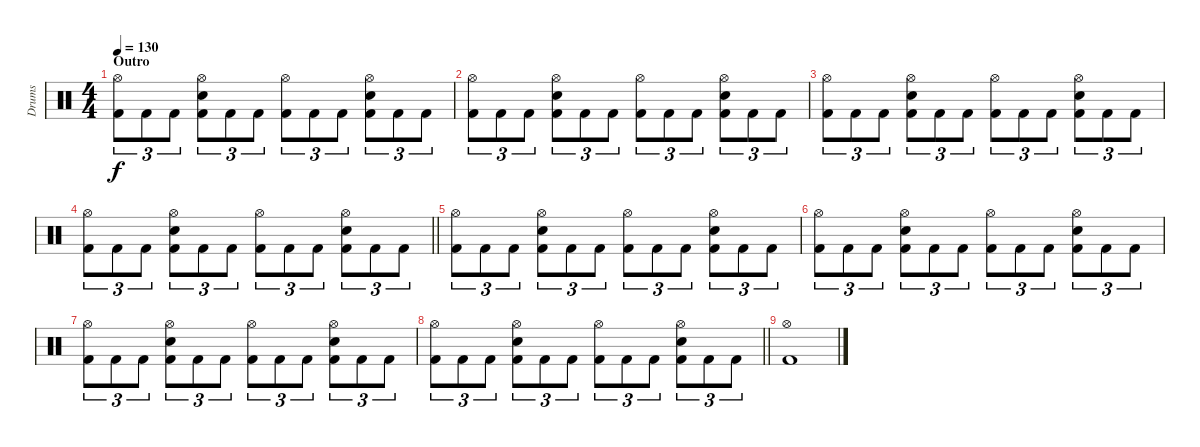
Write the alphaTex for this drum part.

\track ("Drums" "Drums") {instrument percussion}
\staff {score}
\articulation defaults
\ts (4 4)
\section ("" "Outro")
\tempo 130
\clef neutral
\ks c
("Hi-Hat (open)" "Kick (hit) 2").8{tu (3 2) dy f} "Kick (hit) 2".8{tu (3 2)} "Kick (hit) 2".8{tu (3 2)} ("Hi-Hat (open)" "Snare (hit) 2" "Kick (hit) 2").8{tu (3 2)} "Kick (hit) 2".8{tu (3 2)} "Kick (hit) 2".8{tu (3 2)} ("Hi-Hat (open)" "Kick (hit) 2").8{tu (3 2)} "Kick (hit) 2".8{tu (3 2)} "Kick (hit) 2".8{tu (3 2)} ("Hi-Hat (open)" "Snare (hit) 2" "Kick (hit) 2").8{tu (3 2)} "Kick (hit) 2".8{tu (3 2)} "Kick (hit) 2".8{tu (3 2)} |
("Hi-Hat (open)" "Kick (hit) 2").8{tu (3 2)} "Kick (hit) 2".8{tu (3 2)} "Kick (hit) 2".8{tu (3 2)} ("Hi-Hat (open)" "Snare (hit) 2" "Kick (hit) 2").8{tu (3 2)} "Kick (hit) 2".8{tu (3 2)} "Kick (hit) 2".8{tu (3 2)} ("Hi-Hat (open)" "Kick (hit) 2").8{tu (3 2)} "Kick (hit) 2".8{tu (3 2)} "Kick (hit) 2".8{tu (3 2)} ("Hi-Hat (open)" "Snare (hit) 2" "Kick (hit) 2").8{tu (3 2)} "Kick (hit) 2".8{tu (3 2)} "Kick (hit) 2".8{tu (3 2)} |
("Hi-Hat (open)" "Kick (hit) 2").8{tu (3 2)} "Kick (hit) 2".8{tu (3 2)} "Kick (hit) 2".8{tu (3 2)} ("Hi-Hat (open)" "Snare (hit) 2" "Kick (hit) 2").8{tu (3 2)} "Kick (hit) 2".8{tu (3 2)} "Kick (hit) 2".8{tu (3 2)} ("Hi-Hat (open)" "Kick (hit) 2").8{tu (3 2)} "Kick (hit) 2".8{tu (3 2)} "Kick (hit) 2".8{tu (3 2)} ("Hi-Hat (open)" "Snare (hit) 2" "Kick (hit) 2").8{tu (3 2)} "Kick (hit) 2".8{tu (3 2)} "Kick (hit) 2".8{tu (3 2)} |
\barLineRight lightlight
("Hi-Hat (open)" "Kick (hit) 2").8{tu (3 2)} "Kick (hit) 2".8{tu (3 2)} "Kick (hit) 2".8{tu (3 2)} ("Hi-Hat (open)" "Snare (hit) 2" "Kick (hit) 2").8{tu (3 2)} "Kick (hit) 2".8{tu (3 2)} "Kick (hit) 2".8{tu (3 2)} ("Hi-Hat (open)" "Kick (hit) 2").8{tu (3 2)} "Kick (hit) 2".8{tu (3 2)} "Kick (hit) 2".8{tu (3 2)} ("Hi-Hat (open)" "Snare (hit) 2" "Kick (hit) 2").8{tu (3 2)} "Kick (hit) 2".8{tu (3 2)} "Kick (hit) 2".8{tu (3 2)} |
("Hi-Hat (open)" "Kick (hit) 2").8{tu (3 2)} "Kick (hit) 2".8{tu (3 2)} "Kick (hit) 2".8{tu (3 2)} ("Hi-Hat (open)" "Snare (hit) 2" "Kick (hit) 2").8{tu (3 2)} "Kick (hit) 2".8{tu (3 2)} "Kick (hit) 2".8{tu (3 2)} ("Hi-Hat (open)" "Kick (hit) 2").8{tu (3 2)} "Kick (hit) 2".8{tu (3 2)} "Kick (hit) 2".8{tu (3 2)} ("Hi-Hat (open)" "Snare (hit) 2" "Kick (hit) 2").8{tu (3 2)} "Kick (hit) 2".8{tu (3 2)} "Kick (hit) 2".8{tu (3 2)} |
("Hi-Hat (open)" "Kick (hit) 2").8{tu (3 2)} "Kick (hit) 2".8{tu (3 2)} "Kick (hit) 2".8{tu (3 2)} ("Hi-Hat (open)" "Snare (hit) 2" "Kick (hit) 2").8{tu (3 2)} "Kick (hit) 2".8{tu (3 2)} "Kick (hit) 2".8{tu (3 2)} ("Hi-Hat (open)" "Kick (hit) 2").8{tu (3 2)} "Kick (hit) 2".8{tu (3 2)} "Kick (hit) 2".8{tu (3 2)} ("Hi-Hat (open)" "Snare (hit) 2" "Kick (hit) 2").8{tu (3 2)} "Kick (hit) 2".8{tu (3 2)} "Kick (hit) 2".8{tu (3 2)} |
("Hi-Hat (open)" "Kick (hit) 2").8{tu (3 2)} "Kick (hit) 2".8{tu (3 2)} "Kick (hit) 2".8{tu (3 2)} ("Hi-Hat (open)" "Snare (hit) 2" "Kick (hit) 2").8{tu (3 2)} "Kick (hit) 2".8{tu (3 2)} "Kick (hit) 2".8{tu (3 2)} ("Hi-Hat (open)" "Kick (hit) 2").8{tu (3 2)} "Kick (hit) 2".8{tu (3 2)} "Kick (hit) 2".8{tu (3 2)} ("Hi-Hat (open)" "Snare (hit) 2" "Kick (hit) 2").8{tu (3 2)} "Kick (hit) 2".8{tu (3 2)} "Kick (hit) 2".8{tu (3 2)} |
\barLineRight lightlight
("Hi-Hat (open)" "Kick (hit) 2").8{tu (3 2)} "Kick (hit) 2".8{tu (3 2)} "Kick (hit) 2".8{tu (3 2)} ("Hi-Hat (open)" "Snare (hit) 2" "Kick (hit) 2").8{tu (3 2)} "Kick (hit) 2".8{tu (3 2)} "Kick (hit) 2".8{tu (3 2)} ("Hi-Hat (open)" "Kick (hit) 2").8{tu (3 2)} "Kick (hit) 2".8{tu (3 2)} "Kick (hit) 2".8{tu (3 2)} ("Hi-Hat (open)" "Snare (hit) 2" "Kick (hit) 2").8{tu (3 2)} "Kick (hit) 2".8{tu (3 2)} "Kick (hit) 2".8{tu (3 2)} |
("Hi-Hat (open)" "Kick (hit) 2").1
